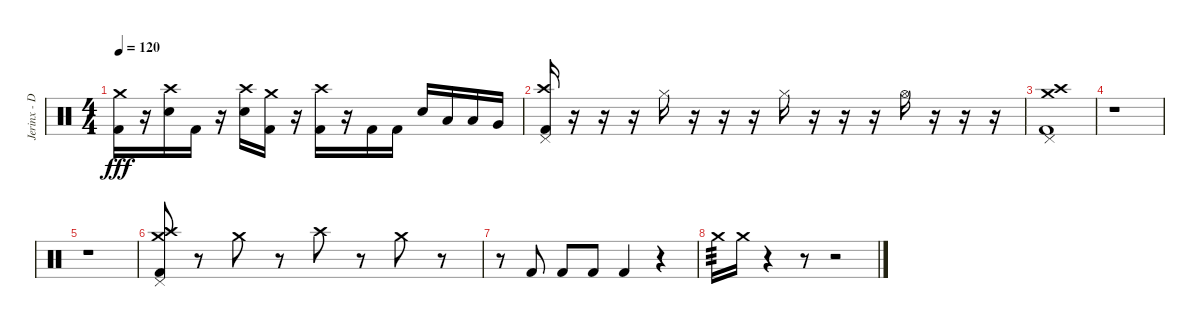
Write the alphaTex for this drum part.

\track ("Jerinx - Drum" "Jerinx - D") {instrument percussion}
\staff {score}
\articulation defaults
\ts (4 4)
\tempo 120
\clef neutral
\ks c
("Kick (hit) 2" "Crash medium (hit)").16{dy fff} r.16 ("Snare (hit) 2" "Crash high (hit)").16 "Kick (hit) 2".16 r.16 ("Snare (hit) 2" "Crash high (hit)").16 ("Kick (hit) 2" "Crash medium (hit)").16 r.16 ("Kick (hit) 2" "Crash high (hit)").16 r.16 "Kick (hit) 2".16 "Kick (hit) 2".16 "Snare (hit) 2".16 "Low Tom (hit)".16 "Low Tom (hit)".16 "Very Low Tom (hit)".16 |
("Pedal Hi-Hat (hit)" "Kick (hit) 2" "Crash high (hit)").16 r.16 r.16 r.16 "Hi-Hat (closed)".16 r.16 r.16 r.16 "Hi-Hat (closed)".16 r.16 r.16 r.16 "Hi-Hat (open)".16 r.16 r.16 r.16 |
("Pedal Hi-Hat (hit)" "Kick (hit) 2" "Crash high (hit)" "Crash medium (hit)").1 |
r.1 |
r.1 |
("Pedal Hi-Hat (hit)" "Kick (hit) 2" "Crash high (hit)" "Crash medium (hit)").8 r.8 "Crash medium (hit)".8 r.8 "Crash high (hit)".8 r.8 "Crash medium (hit)".8 r.8 |
r.8 "Kick (hit) 2".8 "Kick (hit) 2".8 "Kick (hit) 2".8 "Kick (hit) 2".4 r.4 |
"Crash medium (hit)".16{tp 3} "Crash medium (hit)".16 r.4 r.8 r.2
